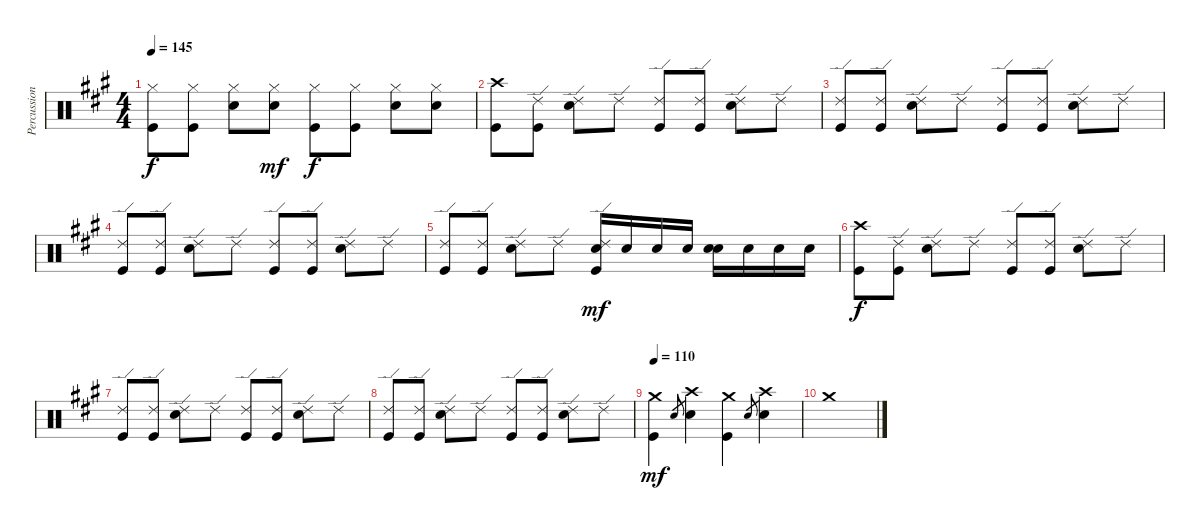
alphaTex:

\track ("Percussion" "Percussion") {instrument percussion}
\staff {score}
\articulation defaults
\ts (4 4)
\tempo 145
\clef neutral
\ks a
("Hi-Hat (closed)" "Kick (hit)").8{dy f} ("Hi-Hat (closed)" "Kick (hit)").8 ("Hi-Hat (closed)" "Snare (hit) 2").8 ("Hi-Hat (closed)" "Snare (hit) 2").8{dy mf} ("Hi-Hat (closed)" "Kick (hit)").8{dy f} ("Hi-Hat (closed)" "Kick (hit)").8 ("Hi-Hat (closed)" "Snare (hit) 2").8 ("Hi-Hat (closed)" "Snare (hit) 2").8 |
("Crash high (hit)" "Kick (hit)").8 ("Ride (edge) 2" "Kick (hit)").8 ("Ride (edge) 2" "Snare (hit) 2").8 "Ride (edge) 2".8 ("Ride (edge) 2" "Kick (hit)").8 ("Ride (edge) 2" "Kick (hit)").8 ("Ride (edge) 2" "Snare (hit) 2").8 "Ride (edge) 2".8 |
("Ride (edge) 2" "Kick (hit)").8 ("Ride (edge) 2" "Kick (hit)").8 ("Ride (edge) 2" "Snare (hit) 2").8 "Ride (edge) 2".8 ("Ride (edge) 2" "Kick (hit)").8 ("Ride (edge) 2" "Kick (hit)").8 ("Ride (edge) 2" "Snare (hit) 2").8 "Ride (edge) 2".8 |
("Ride (edge) 2" "Kick (hit)").8 ("Ride (edge) 2" "Kick (hit)").8 ("Ride (edge) 2" "Snare (hit) 2").8 "Ride (edge) 2".8 ("Ride (edge) 2" "Kick (hit)").8 ("Ride (edge) 2" "Kick (hit)").8 ("Ride (edge) 2" "Snare (hit) 2").8 "Ride (edge) 2".8 |
("Ride (edge) 2" "Kick (hit)").8 ("Ride (edge) 2" "Kick (hit)").8 ("Ride (edge) 2" "Snare (hit) 2").8 "Ride (edge) 2".8 ("Ride (edge) 2" "Snare (hit) 2" "Kick (hit)").16{dy mf} "Snare (hit) 2".16 "Snare (hit) 2".16 "Snare (hit) 2".16 ("Snare (hit) 2" "Snare (hit)").16 "Snare (hit) 2".16 "Snare (hit) 2".16 "Snare (hit) 2".16 |
("Crash high (hit)" "Kick (hit)").8{dy f} ("Ride (edge) 2" "Kick (hit)").8 ("Ride (edge) 2" "Snare (hit) 2").8 "Ride (edge) 2".8 ("Ride (edge) 2" "Kick (hit)").8 ("Ride (edge) 2" "Kick (hit)").8 ("Ride (edge) 2" "Snare (hit) 2").8 "Ride (edge) 2".8 |
("Ride (edge) 2" "Kick (hit)").8 ("Ride (edge) 2" "Kick (hit)").8 ("Ride (edge) 2" "Snare (hit) 2").8 "Ride (edge) 2".8 ("Ride (edge) 2" "Kick (hit)").8 ("Ride (edge) 2" "Kick (hit)").8 ("Ride (edge) 2" "Snare (hit) 2").8 "Ride (edge) 2".8 |
("Ride (edge) 2" "Kick (hit)").8 ("Ride (edge) 2" "Kick (hit)").8 ("Ride (edge) 2" "Snare (hit) 2").8 "Ride (edge) 2".8 ("Ride (edge) 2" "Kick (hit)").8 ("Ride (edge) 2" "Kick (hit)").8 ("Ride (edge) 2" "Snare (hit) 2").8 "Ride (edge) 2".8 |
\tempo 110
("Crash medium (hit)" "Kick (hit)").4{dy mf} "Snare (hit) 2".8{gr} ("Crash high (hit)" "Snare (hit) 2").4 ("Crash medium (hit)" "Kick (hit)").4 "Snare (hit) 2".8{gr} ("Crash high (hit)" "Snare (hit) 2").4 |
"Crash medium (hit)".1
